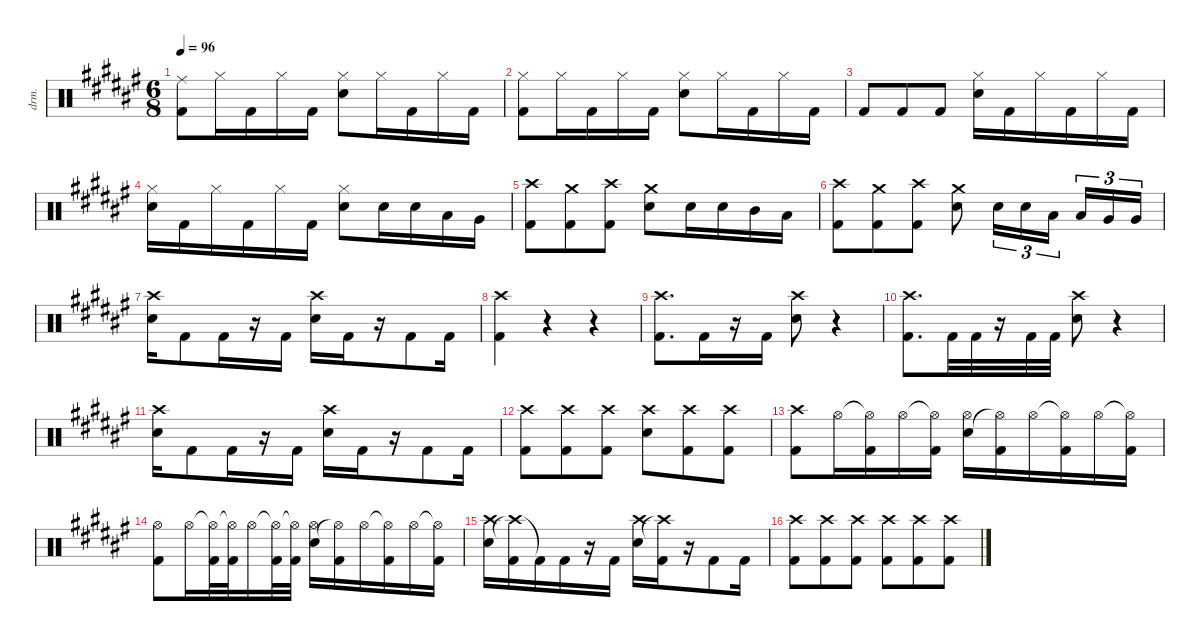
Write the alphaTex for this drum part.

\defaultSystemsLayout 4
\hideDynamics
\bracketExtendMode nobrackets
\otherSystemsTrackNameOrientation horizontal
\track ("Drumkit" "drm.") {instrument percussion}
\staff {score}
\articulation defaults
\ts (6 8)
\tempo 96
\clef neutral
\ks f#
("Kick (hit) 2"{acc forcenatural} "Ride (middle)"{acc #}).8{dy ff} "Hi-Hat (closed)"{acc #}.16 "Kick (hit) 2"{acc forcenatural}.16 "Hi-Hat (closed)"{acc #}.16 "Kick (hit) 2"{acc forcenatural}.16 ("Snare (hit) 2"{acc forcenatural} "Hi-Hat (closed)"{acc #}).8 "Hi-Hat (closed)"{acc #}.16 "Kick (hit) 2"{acc forcenatural}.16 "Hi-Hat (closed)"{acc #}.16 "Kick (hit) 2"{acc forcenatural}.16 |
("Kick (hit) 2"{acc forcenatural} "Hi-Hat (closed)"{acc #}).8 "Hi-Hat (closed)"{acc #}.16 "Kick (hit) 2"{acc forcenatural}.16 "Hi-Hat (closed)"{acc #}.16 "Kick (hit) 2"{acc forcenatural}.16 ("Snare (hit) 2"{acc forcenatural} "Hi-Hat (closed)"{acc #}).8 "Hi-Hat (closed)"{acc #}.16 "Kick (hit) 2"{acc forcenatural}.16 "Hi-Hat (closed)"{acc #}.16 "Kick (hit) 2"{acc forcenatural}.16 |
"Kick (hit) 2"{acc forcenatural}.8 "Kick (hit) 2"{acc forcenatural}.8 "Kick (hit) 2"{acc forcenatural}.8 ("Snare (hit) 2"{acc forcenatural} "Hi-Hat (closed)"{acc #}).16 "Kick (hit) 2"{acc forcenatural}.16 "Hi-Hat (closed)"{acc #}.16 "Kick (hit) 2"{acc forcenatural}.16 "Hi-Hat (closed)"{acc #}.16 "Kick (hit) 2"{acc forcenatural}.16 |
("Snare (hit) 2"{acc forcenatural} "Hi-Hat (closed)"{acc #}).16 "Kick (hit) 2"{acc forcenatural}.16 "Hi-Hat (closed)"{acc #}.16 "Kick (hit) 2"{acc forcenatural}.16 "Hi-Hat (closed)"{acc #}.16 "Kick (hit) 2"{acc forcenatural}.16 ("Snare (hit) 2"{acc forcenatural} "Hi-Hat (closed)"{acc #}).8 "Snare (hit) 2"{acc forcenatural}.16 "Snare (hit) 2"{acc forcenatural}.16 "Low Tom (hit)"{acc forcenatural}.16 "Very Low Tom (hit)"{acc forcenatural}.16 |
("Kick (hit) 2"{acc forcenatural} "Crash high (hit)"{acc #}).8 ("Kick (hit) 2"{acc forcenatural} "Crash medium (hit)"{acc forcenatural}).8 ("Kick (hit) 2"{acc forcenatural} "Crash high (hit)"{acc #}).8 ("Snare (hit) 2"{acc forcenatural} "Crash medium (hit)"{acc forcenatural}).8 "Snare (hit) 2"{acc forcenatural}.16 "Snare (hit) 2"{acc forcenatural}.16 "Mid Tom (hit)"{acc forcenatural}.16 "Low Tom (hit)"{acc forcenatural}.16 |
("Kick (hit) 2"{acc forcenatural} "Crash high (hit)"{acc #}).8 ("Kick (hit) 2"{acc forcenatural} "Crash medium (hit)"{acc forcenatural}).8 ("Kick (hit) 2"{acc forcenatural} "Crash high (hit)"{acc #}).8 ("Snare (hit) 2"{acc forcenatural} "Crash medium (hit)"{acc forcenatural}).8 "Snare (hit) 2"{acc forcenatural}.16{tu (3 2)} "Snare (hit) 2"{acc forcenatural}.16{tu (3 2)} "Low Tom (hit)"{acc forcenatural}.16{tu (3 2)} "Low Tom (hit)"{acc forcenatural}.16{tu (3 2)} "Very Low Tom (hit)"{acc forcenatural}.16{tu (3 2)} "Very Low Tom (hit)"{acc forcenatural}.16{tu (3 2)} |
("Snare (hit) 2"{acc forcenatural} "Crash high (hit)"{acc #}).16 "Kick (hit) 2"{acc forcenatural}.8 "Kick (hit) 2"{acc forcenatural}.16 r.16 "Kick (hit) 2"{acc forcenatural}.16 ("Snare (hit) 2"{acc forcenatural} "Crash high (hit)"{acc #}).16 "Kick (hit) 2"{acc forcenatural}.16 r.16 "Kick (hit) 2"{acc forcenatural}.8 "Kick (hit) 2"{acc forcenatural}.16 |
("Kick (hit) 2"{acc forcenatural} "Crash high (hit)"{acc #}).4 r.4 r.4 |
("Kick (hit) 2"{acc forcenatural} "Crash high (hit)"{acc #}).8{d} "Kick (hit) 2"{acc forcenatural}.16 r.16 "Kick (hit) 2"{acc forcenatural}.16 ("Snare (hit) 2"{acc forcenatural} "Crash high (hit)"{acc #}).8 r.4 |
("Kick (hit) 2"{acc forcenatural} "Crash high (hit)"{acc #}).8{d} "Kick (hit) 2"{acc forcenatural}.32 "Kick (hit) 2"{acc forcenatural}.32 r.16 "Kick (hit) 2"{acc forcenatural}.32 "Kick (hit) 2"{acc forcenatural}.32 ("Snare (hit) 2"{acc forcenatural} "Crash high (hit)"{acc #}).8 r.4 |
("Snare (hit) 2"{acc forcenatural} "Crash high (hit)"{acc #}).16 "Kick (hit) 2"{acc forcenatural}.8 "Kick (hit) 2"{acc forcenatural}.16 r.16 "Kick (hit) 2"{acc forcenatural}.16 ("Snare (hit) 2"{acc forcenatural} "Crash high (hit)"{acc #}).16 "Kick (hit) 2"{acc forcenatural}.16 r.16 "Kick (hit) 2"{acc forcenatural}.8 "Kick (hit) 2"{acc forcenatural}.16 |
("Kick (hit) 2"{acc forcenatural} "Crash high (hit)"{acc #}).8 ("Kick (hit) 2"{acc forcenatural} "Crash high (hit)"{acc #}).8 ("Kick (hit) 2"{acc forcenatural} "Crash high (hit)"{acc #}).8 ("Snare (hit) 2"{acc forcenatural} "Crash high (hit)"{acc #}).8 ("Kick (hit) 2"{acc forcenatural} "Crash high (hit)"{acc #}).8 ("Kick (hit) 2"{acc forcenatural} "Crash high (hit)"{acc #}).8 |
("Kick (hit) 2"{acc forcenatural} "Crash high (hit)"{acc #}).8 "Hi-Hat (open)"{acc #}.16 ("Hi-Hat (open)"{t acc #} "Kick (hit) 2"{acc forcenatural}).16 "Hi-Hat (open)"{acc #}.16 ("Hi-Hat (open)"{t acc #} "Kick (hit) 2"{acc forcenatural}).16 ("Snare (hit) 2"{acc forcenatural} "Hi-Hat (open)"{acc #}).16 ("Hi-Hat (open)"{t acc #} "Kick (hit) 2"{acc forcenatural}).16 "Hi-Hat (open)"{acc #}.16 ("Hi-Hat (open)"{t acc #} "Kick (hit) 2"{acc forcenatural}).16 "Hi-Hat (open)"{acc #}.16 ("Hi-Hat (open)"{t acc #} "Kick (hit) 2"{acc forcenatural}).16 |
("Kick (hit) 2"{acc forcenatural} "Hi-Hat (open)"{acc #}).8 "Hi-Hat (open)"{acc #}.16 ("Hi-Hat (open)"{t acc #} "Kick (hit) 2"{acc forcenatural}).32 ("Hi-Hat (open)"{t acc #} "Kick (hit) 2"{acc forcenatural}).32 "Hi-Hat (open)"{acc #}.16 ("Hi-Hat (open)"{t acc #} "Kick (hit) 2"{acc forcenatural}).32 ("Hi-Hat (open)"{t acc #} "Kick (hit) 2"{acc forcenatural}).32 ("Snare (hit) 2"{acc forcenatural} "Hi-Hat (open)"{acc #}).16 ("Hi-Hat (open)"{t acc #} "Kick (hit) 2"{acc forcenatural}).16 "Hi-Hat (open)"{acc #}.16 ("Hi-Hat (open)"{t acc #} "Kick (hit) 2"{acc forcenatural}).16 "Hi-Hat (open)"{acc #}.16 ("Hi-Hat (open)"{t acc #} "Kick (hit) 2"{acc forcenatural}).16 |
("Snare (hit) 2"{acc forcenatural} "Crash high (hit)"{acc #}).16 ("Crash high (hit)"{t acc #} "Kick (hit) 2"{acc forcenatural}).16 "Kick (hit) 2"{t acc forcenatural}.16 "Kick (hit) 2"{acc forcenatural}.16 r.16 "Kick (hit) 2"{acc forcenatural}.16 ("Snare (hit) 2"{acc forcenatural} "Crash high (hit)"{acc #}).16 ("Crash high (hit)"{t acc #} "Kick (hit) 2"{acc forcenatural}).16 r.16 "Kick (hit) 2"{acc forcenatural}.8 "Kick (hit) 2"{acc forcenatural}.16 |
("Kick (hit) 2"{acc forcenatural} "Crash high (hit)"{acc #}).8 ("Kick (hit) 2"{acc forcenatural} "Crash high (hit)"{acc #}).8 ("Kick (hit) 2"{acc forcenatural} "Crash high (hit)"{acc #}).8 ("Kick (hit) 2"{acc forcenatural} "Crash high (hit)"{acc #}).8 ("Kick (hit) 2"{acc forcenatural} "Crash high (hit)"{acc #}).8 ("Kick (hit) 2"{acc forcenatural} "Crash high (hit)"{acc #}).8
